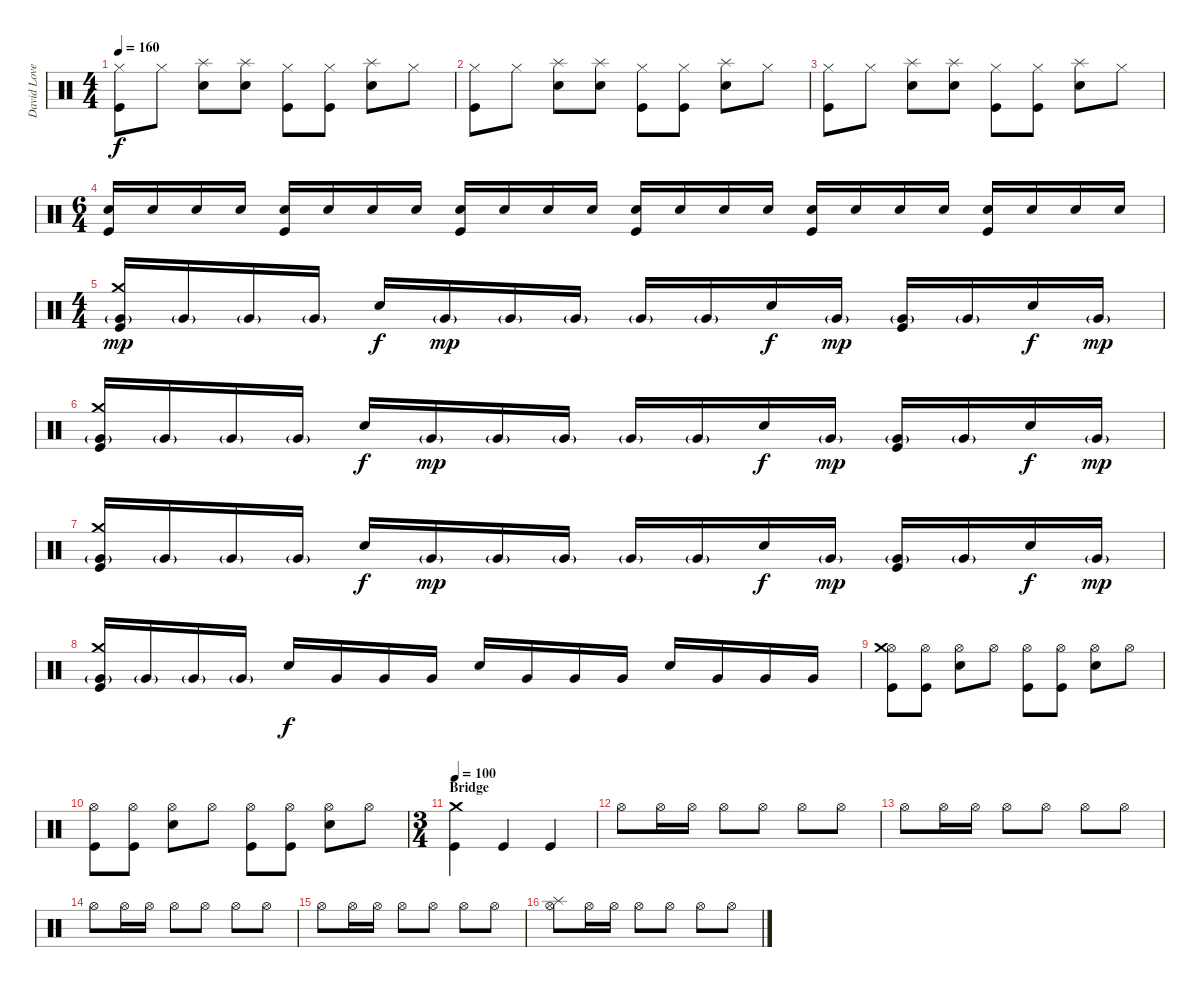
\track ("David Lovering" "David Love") {instrument percussion}
\staff {score}
\articulation defaults
\ts (4 4)
\tempo 160
\clef neutral
\ks c
("Hi-Hat (closed)" "Kick (hit)").8{dy f} "Hi-Hat (closed)".8 ("Splash (hit)" "Snare (hit) 2").8 ("Splash (hit)" "Snare (hit) 2").8 ("Hi-Hat (closed)" "Kick (hit)").8 ("Hi-Hat (closed)" "Kick (hit)").8 ("Splash (hit)" "Snare (hit) 2").8 "Hi-Hat (closed)".8 |
("Hi-Hat (closed)" "Kick (hit)").8 "Hi-Hat (closed)".8 ("Splash (hit)" "Snare (hit) 2").8 ("Splash (hit)" "Snare (hit) 2").8 ("Hi-Hat (closed)" "Kick (hit)").8 ("Hi-Hat (closed)" "Kick (hit)").8 ("Splash (hit)" "Snare (hit) 2").8 "Hi-Hat (closed)".8 |
("Hi-Hat (closed)" "Kick (hit)").8 "Hi-Hat (closed)".8 ("Splash (hit)" "Snare (hit) 2").8 ("Splash (hit)" "Snare (hit) 2").8 ("Hi-Hat (closed)" "Kick (hit)").8 ("Hi-Hat (closed)" "Kick (hit)").8 ("Splash (hit)" "Snare (hit) 2").8 "Hi-Hat (closed)".8 |
\ts (6 4)
("Snare (hit) 2" "Kick (hit)").16 "Snare (hit) 2".16 "Snare (hit) 2".16 "Snare (hit) 2".16 ("Snare (hit) 2" "Kick (hit)").16 "Snare (hit) 2".16 "Snare (hit) 2".16 "Snare (hit) 2".16 ("Snare (hit) 2" "Kick (hit)").16 "Snare (hit) 2".16 "Snare (hit) 2".16 "Snare (hit) 2".16 ("Snare (hit) 2" "Kick (hit)").16 "Snare (hit) 2".16 "Snare (hit) 2".16 "Snare (hit) 2".16 ("Snare (hit) 2" "Kick (hit)").16 "Snare (hit) 2".16 "Snare (hit) 2".16 "Snare (hit) 2".16 ("Snare (hit) 2" "Kick (hit)").16 "Snare (hit) 2".16 "Snare (hit) 2".16 "Snare (hit) 2".16 |
\ts (4 4)
("Crash medium (hit)" "Very Low Tom (hit)"{g} "Kick (hit)").16{dy mp} "Very Low Tom (hit)"{g}.16 "Very Low Tom (hit)"{g}.16 "Very Low Tom (hit)"{g}.16 "Snare (hit) 2".16{dy f} "Very Low Tom (hit)"{g}.16{dy mp} "Very Low Tom (hit)"{g}.16 "Very Low Tom (hit)"{g}.16 "Very Low Tom (hit)"{g}.16 "Very Low Tom (hit)"{g}.16 "Snare (hit) 2".16{dy f} "Very Low Tom (hit)"{g}.16{dy mp} ("Very Low Tom (hit)"{g} "Kick (hit)").16 "Very Low Tom (hit)"{g}.16 "Snare (hit) 2".16{dy f} "Very Low Tom (hit)"{g}.16{dy mp} |
("Crash medium (hit)" "Very Low Tom (hit)"{g} "Kick (hit)").16 "Very Low Tom (hit)"{g}.16 "Very Low Tom (hit)"{g}.16 "Very Low Tom (hit)"{g}.16 "Snare (hit) 2".16{dy f} "Very Low Tom (hit)"{g}.16{dy mp} "Very Low Tom (hit)"{g}.16 "Very Low Tom (hit)"{g}.16 "Very Low Tom (hit)"{g}.16 "Very Low Tom (hit)"{g}.16 "Snare (hit) 2".16{dy f} "Very Low Tom (hit)"{g}.16{dy mp} ("Very Low Tom (hit)"{g} "Kick (hit)").16 "Very Low Tom (hit)"{g}.16 "Snare (hit) 2".16{dy f} "Very Low Tom (hit)"{g}.16{dy mp} |
("Crash medium (hit)" "Very Low Tom (hit)"{g} "Kick (hit)").16 "Very Low Tom (hit)"{g}.16 "Very Low Tom (hit)"{g}.16 "Very Low Tom (hit)"{g}.16 "Snare (hit) 2".16{dy f} "Very Low Tom (hit)"{g}.16{dy mp} "Very Low Tom (hit)"{g}.16 "Very Low Tom (hit)"{g}.16 "Very Low Tom (hit)"{g}.16 "Very Low Tom (hit)"{g}.16 "Snare (hit) 2".16{dy f} "Very Low Tom (hit)"{g}.16{dy mp} ("Very Low Tom (hit)"{g} "Kick (hit)").16 "Very Low Tom (hit)"{g}.16 "Snare (hit) 2".16{dy f} "Very Low Tom (hit)"{g}.16{dy mp} |
("Crash medium (hit)" "Very Low Tom (hit)"{g} "Kick (hit)").16 "Very Low Tom (hit)"{g}.16 "Very Low Tom (hit)"{g}.16 "Very Low Tom (hit)"{g}.16 "Snare (hit) 2".16{dy f} "Very Low Tom (hit)".16 "Very Low Tom (hit)".16 "Very Low Tom (hit)".16 "Snare (hit) 2".16 "Very Low Tom (hit)".16 "Very Low Tom (hit)".16 "Very Low Tom (hit)".16 "Snare (hit) 2".16 "Very Low Tom (hit)".16 "Very Low Tom (hit)".16 "Very Low Tom (hit)".16 |
("Hi-Hat (open)" "Crash medium (hit)" "Kick (hit)").8 ("Hi-Hat (open)" "Kick (hit)").8 ("Hi-Hat (open)" "Snare (hit) 2").8 "Hi-Hat (open)".8 ("Hi-Hat (open)" "Kick (hit)").8 ("Hi-Hat (open)" "Kick (hit)").8 ("Hi-Hat (open)" "Snare (hit) 2").8 "Hi-Hat (open)".8 |
("Hi-Hat (open)" "Kick (hit)").8 ("Hi-Hat (open)" "Kick (hit)").8 ("Hi-Hat (open)" "Snare (hit) 2").8 "Hi-Hat (open)".8 ("Hi-Hat (open)" "Kick (hit)").8 ("Hi-Hat (open)" "Kick (hit)").8 ("Hi-Hat (open)" "Snare (hit) 2").8 "Hi-Hat (open)".8 |
\ts (3 4)
\section ("" "Bridge")
\tempo 100
("Crash medium (hit)" "Kick (hit)").4 "Kick (hit)".4 "Kick (hit)".4 |
"Hi-Hat (open)".8 "Hi-Hat (open)".16 "Hi-Hat (open)".16 "Hi-Hat (open)".8 "Hi-Hat (open)".8 "Hi-Hat (open)".8 "Hi-Hat (open)".8 |
"Hi-Hat (open)".8 "Hi-Hat (open)".16 "Hi-Hat (open)".16 "Hi-Hat (open)".8 "Hi-Hat (open)".8 "Hi-Hat (open)".8 "Hi-Hat (open)".8 |
"Hi-Hat (open)".8 "Hi-Hat (open)".16 "Hi-Hat (open)".16 "Hi-Hat (open)".8 "Hi-Hat (open)".8 "Hi-Hat (open)".8 "Hi-Hat (open)".8 |
"Hi-Hat (open)".8 "Hi-Hat (open)".16 "Hi-Hat (open)".16 "Hi-Hat (open)".8 "Hi-Hat (open)".8 "Hi-Hat (open)".8 "Hi-Hat (open)".8 |
("Hi-Hat (open)" "Splash (hit)").8 "Hi-Hat (open)".16 "Hi-Hat (open)".16 "Hi-Hat (open)".8 "Hi-Hat (open)".8 "Hi-Hat (open)".8 "Hi-Hat (open)".8
